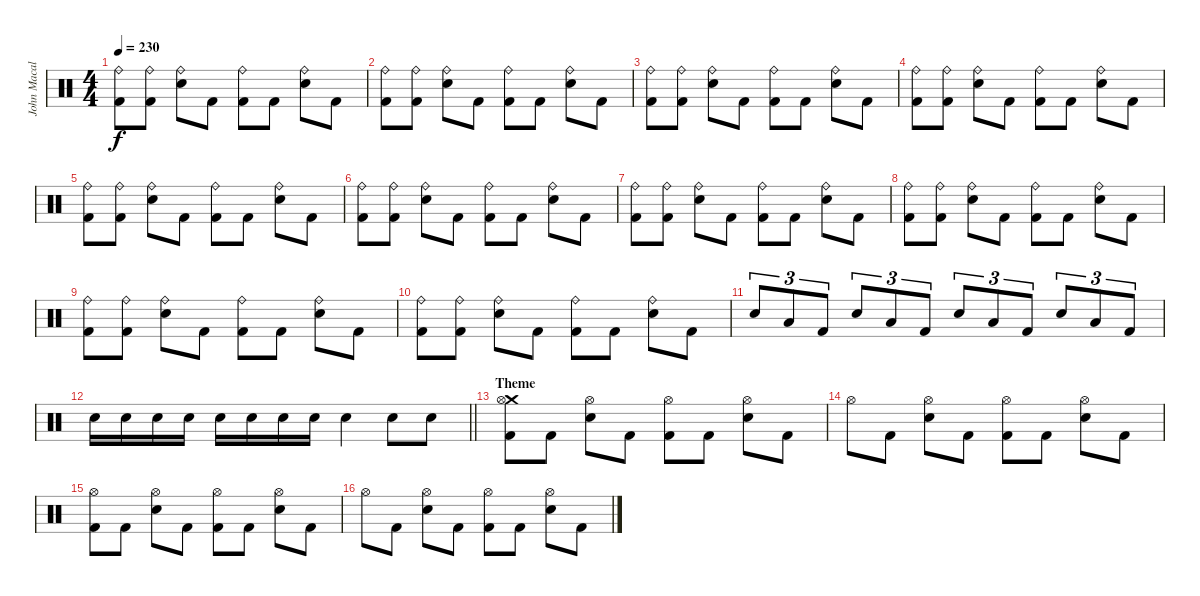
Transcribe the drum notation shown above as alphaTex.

\track ("John Macaluso" "John Macal") {instrument percussion}
\staff {score}
\articulation defaults
\ts (4 4)
\tempo 230
\clef neutral
\ks c
("Ride (bell)" "Kick (hit) 2").8{dy f} ("Ride (bell)" "Kick (hit) 2").8 ("Ride (bell)" "Snare (hit) 2").8 "Kick (hit) 2".8 ("Ride (bell)" "Kick (hit) 2").8 "Kick (hit) 2".8 ("Ride (bell)" "Snare (hit) 2").8 "Kick (hit) 2".8 |
("Ride (bell)" "Kick (hit) 2").8 ("Ride (bell)" "Kick (hit) 2").8 ("Ride (bell)" "Snare (hit) 2").8 "Kick (hit) 2".8 ("Ride (bell)" "Kick (hit) 2").8 "Kick (hit) 2".8 ("Ride (bell)" "Snare (hit) 2").8 "Kick (hit) 2".8 |
("Ride (bell)" "Kick (hit) 2").8 ("Ride (bell)" "Kick (hit) 2").8 ("Ride (bell)" "Snare (hit) 2").8 "Kick (hit) 2".8 ("Ride (bell)" "Kick (hit) 2").8 "Kick (hit) 2".8 ("Ride (bell)" "Snare (hit) 2").8 "Kick (hit) 2".8 |
("Ride (bell)" "Kick (hit) 2").8 ("Ride (bell)" "Kick (hit) 2").8 ("Ride (bell)" "Snare (hit) 2").8 "Kick (hit) 2".8 ("Ride (bell)" "Kick (hit) 2").8 "Kick (hit) 2".8 ("Ride (bell)" "Snare (hit) 2").8 "Kick (hit) 2".8 |
("Ride (bell)" "Kick (hit) 2").8 ("Ride (bell)" "Kick (hit) 2").8 ("Ride (bell)" "Snare (hit) 2").8 "Kick (hit) 2".8 ("Ride (bell)" "Kick (hit) 2").8 "Kick (hit) 2".8 ("Ride (bell)" "Snare (hit) 2").8 "Kick (hit) 2".8 |
("Ride (bell)" "Kick (hit) 2").8 ("Ride (bell)" "Kick (hit) 2").8 ("Ride (bell)" "Snare (hit) 2").8 "Kick (hit) 2".8 ("Ride (bell)" "Kick (hit) 2").8 "Kick (hit) 2".8 ("Ride (bell)" "Snare (hit) 2").8 "Kick (hit) 2".8 |
("Ride (bell)" "Kick (hit) 2").8 ("Ride (bell)" "Kick (hit) 2").8 ("Ride (bell)" "Snare (hit) 2").8 "Kick (hit) 2".8 ("Ride (bell)" "Kick (hit) 2").8 "Kick (hit) 2".8 ("Ride (bell)" "Snare (hit) 2").8 "Kick (hit) 2".8 |
("Ride (bell)" "Kick (hit) 2").8 ("Ride (bell)" "Kick (hit) 2").8 ("Ride (bell)" "Snare (hit) 2").8 "Kick (hit) 2".8 ("Ride (bell)" "Kick (hit) 2").8 "Kick (hit) 2".8 ("Ride (bell)" "Snare (hit) 2").8 "Kick (hit) 2".8 |
("Ride (bell)" "Kick (hit) 2").8 ("Ride (bell)" "Kick (hit) 2").8 ("Ride (bell)" "Snare (hit) 2").8 "Kick (hit) 2".8 ("Ride (bell)" "Kick (hit) 2").8 "Kick (hit) 2".8 ("Ride (bell)" "Snare (hit) 2").8 "Kick (hit) 2".8 |
("Ride (bell)" "Kick (hit) 2").8 ("Ride (bell)" "Kick (hit) 2").8 ("Ride (bell)" "Snare (hit) 2").8 "Kick (hit) 2".8 ("Ride (bell)" "Kick (hit) 2").8 "Kick (hit) 2".8 ("Ride (bell)" "Snare (hit) 2").8 "Kick (hit) 2".8 |
"Snare (hit) 2".8{tu (3 2)} "Low Tom (hit)".8{tu (3 2)} "Kick (hit) 2".8{tu (3 2)} "Snare (hit) 2".8{tu (3 2)} "Low Tom (hit)".8{tu (3 2)} "Kick (hit) 2".8{tu (3 2)} "Snare (hit) 2".8{tu (3 2)} "Low Tom (hit)".8{tu (3 2)} "Kick (hit) 2".8{tu (3 2)} "Snare (hit) 2".8{tu (3 2)} "Low Tom (hit)".8{tu (3 2)} "Kick (hit) 2".8{tu (3 2)} |
\barLineRight lightlight "Snare (hit) 2".16 "Snare (hit) 2".16 "Snare (hit) 2".16 "Snare (hit) 2".16 "Snare (hit) 2".16 "Snare (hit) 2".16 "Snare (hit) 2".16 "Snare (hit) 2".16 "Snare (hit) 2".4 "Snare (hit) 2".8 "Snare (hit) 2".8
|
\section ("" "Theme")
("Crash medium (hit)" "Hi-Hat (open)" "Kick (hit) 2").8 "Kick (hit) 2".8 ("Hi-Hat (open)" "Snare (hit) 2").8 "Kick (hit) 2".8 ("Hi-Hat (open)" "Kick (hit) 2").8 "Kick (hit) 2".8 ("Hi-Hat (open)" "Snare (hit) 2").8 "Kick (hit) 2".8 |
"Hi-Hat (open)".8 "Kick (hit) 2".8 ("Hi-Hat (open)" "Snare (hit) 2").8 "Kick (hit) 2".8 ("Hi-Hat (open)" "Kick (hit) 2").8 "Kick (hit) 2".8 ("Hi-Hat (open)" "Snare (hit) 2").8 "Kick (hit) 2".8 |
("Hi-Hat (open)" "Kick (hit) 2").8 "Kick (hit) 2".8 ("Hi-Hat (open)" "Snare (hit) 2").8 "Kick (hit) 2".8 ("Hi-Hat (open)" "Kick (hit) 2").8 "Kick (hit) 2".8 ("Hi-Hat (open)" "Snare (hit) 2").8 "Kick (hit) 2".8 |
"Hi-Hat (open)".8 "Kick (hit) 2".8 ("Hi-Hat (open)" "Snare (hit) 2").8 "Kick (hit) 2".8 ("Hi-Hat (open)" "Kick (hit) 2").8 "Kick (hit) 2".8 ("Hi-Hat (open)" "Snare (hit) 2").8 "Kick (hit) 2".8
